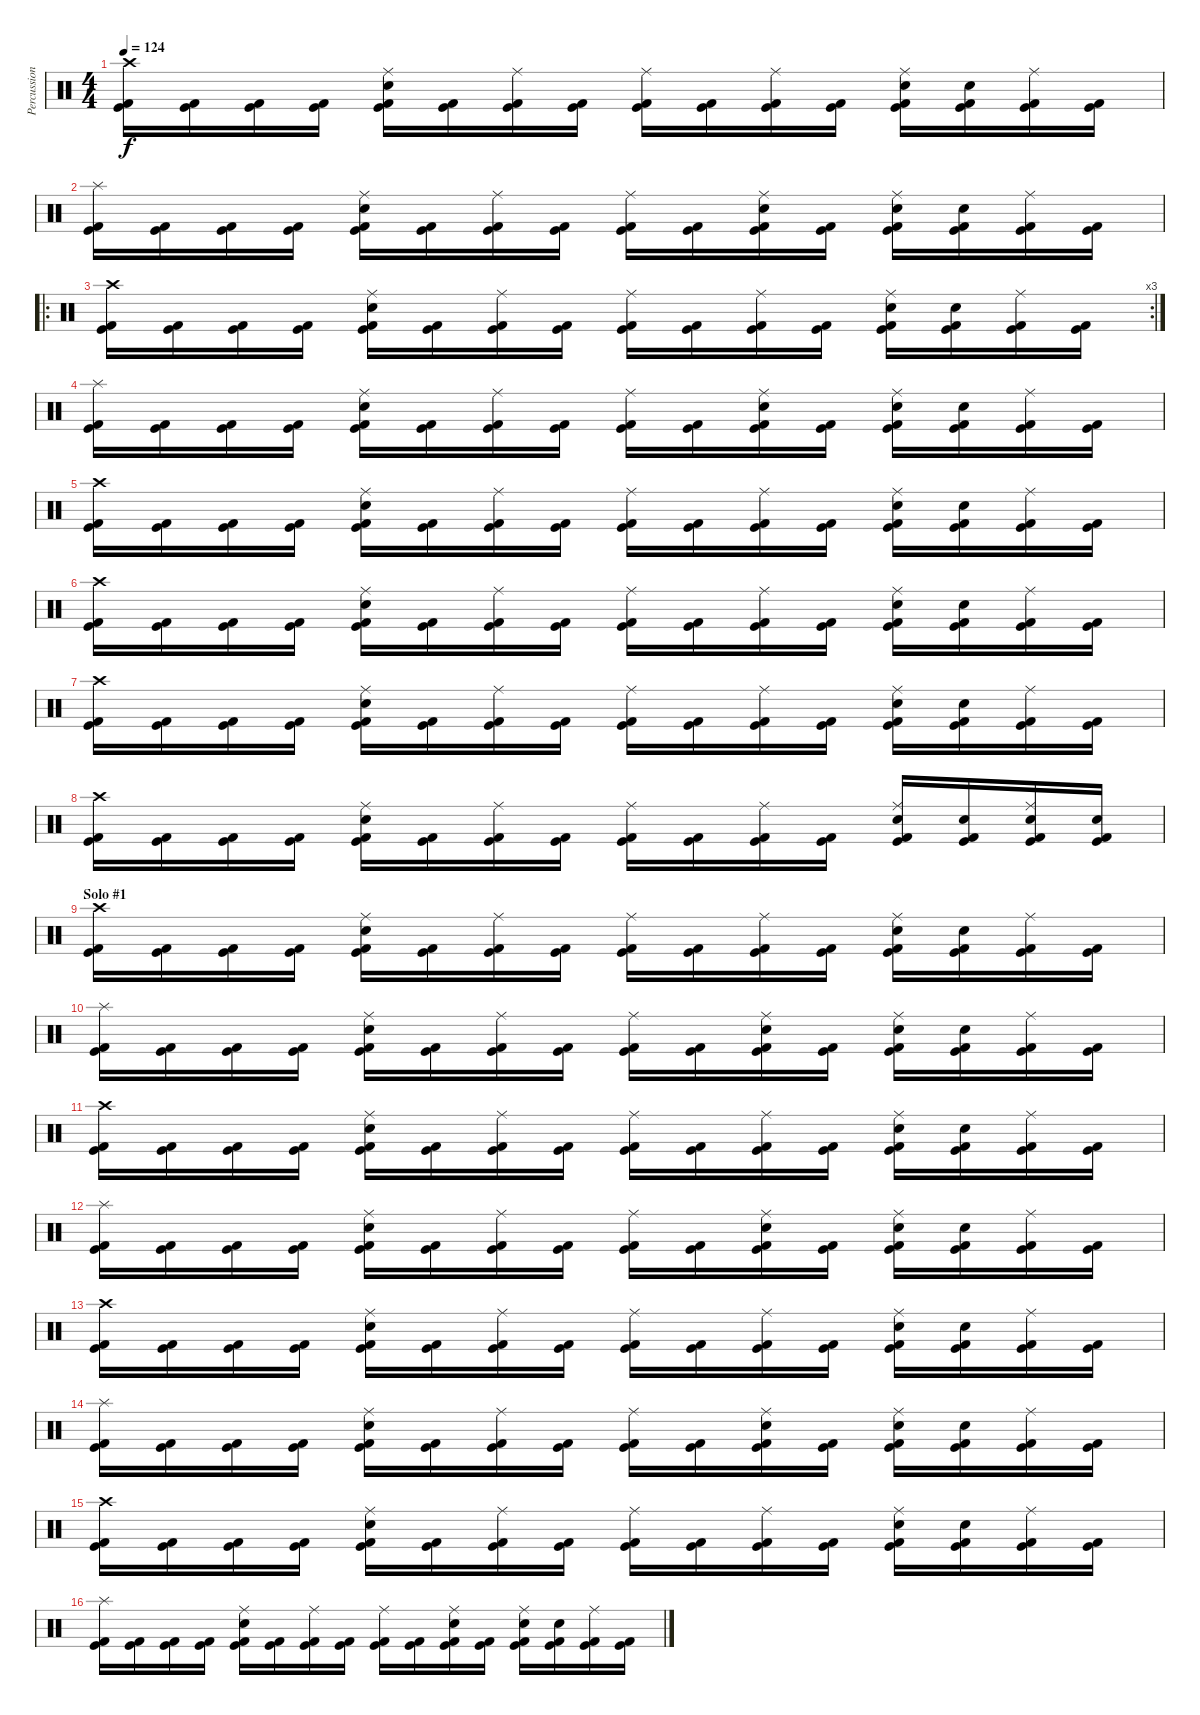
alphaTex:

\track ("Percussion" "Percussion") {instrument percussion}
\staff {score}
\articulation defaults
\ts (4 4)
\tempo 124
\clef neutral
\ks c
("Crash high (hit)" "Kick (hit) 2" "Kick (hit)").16{dy f} ("Kick (hit) 2" "Kick (hit)").16 ("Kick (hit) 2" "Kick (hit)").16 ("Kick (hit) 2" "Kick (hit)").16 ("Ride (middle)" "Snare (hit) 2" "Kick (hit) 2" "Kick (hit)").16 ("Kick (hit) 2" "Kick (hit)").16 ("Ride (middle)" "Kick (hit) 2" "Kick (hit)").16 ("Kick (hit) 2" "Kick (hit)").16 ("Ride (middle)" "Kick (hit) 2" "Kick (hit)").16 ("Kick (hit) 2" "Kick (hit)").16 ("Ride (middle)" "Kick (hit) 2" "Kick (hit)").16 ("Kick (hit) 2" "Kick (hit)").16 ("Ride (middle)" "Snare (hit) 2" "Kick (hit) 2" "Kick (hit)").16 ("Snare (hit) 2" "Kick (hit) 2" "Kick (hit)").16 ("Ride (middle)" "Kick (hit) 2" "Kick (hit)").16 ("Kick (hit) 2" "Kick (hit)").16 |
("Splash (hit)" "Kick (hit) 2" "Kick (hit)").16 ("Kick (hit) 2" "Kick (hit)").16 ("Kick (hit) 2" "Kick (hit)").16 ("Kick (hit) 2" "Kick (hit)").16 ("Ride (middle)" "Snare (hit) 2" "Kick (hit) 2" "Kick (hit)").16 ("Kick (hit) 2" "Kick (hit)").16 ("Ride (middle)" "Kick (hit) 2" "Kick (hit)").16 ("Kick (hit) 2" "Kick (hit)").16 ("Ride (middle)" "Kick (hit) 2" "Kick (hit)").16 ("Kick (hit) 2" "Kick (hit)").16 ("Ride (middle)" "Snare (hit) 2" "Kick (hit) 2" "Kick (hit)").16 ("Kick (hit) 2" "Kick (hit)").16 ("Ride (middle)" "Snare (hit) 2" "Kick (hit) 2" "Kick (hit)").16 ("Snare (hit) 2" "Kick (hit) 2" "Kick (hit)").16 ("Ride (middle)" "Kick (hit) 2" "Kick (hit)").16 ("Kick (hit) 2" "Kick (hit)").16 |
\ro
\rc 3
("Crash high (hit)" "Kick (hit) 2" "Kick (hit)").16 ("Kick (hit) 2" "Kick (hit)").16 ("Kick (hit) 2" "Kick (hit)").16 ("Kick (hit) 2" "Kick (hit)").16 ("Ride (middle)" "Snare (hit) 2" "Kick (hit) 2" "Kick (hit)").16 ("Kick (hit) 2" "Kick (hit)").16 ("Ride (middle)" "Kick (hit) 2" "Kick (hit)").16 ("Kick (hit) 2" "Kick (hit)").16 ("Ride (middle)" "Kick (hit) 2" "Kick (hit)").16 ("Kick (hit) 2" "Kick (hit)").16 ("Ride (middle)" "Kick (hit) 2" "Kick (hit)").16 ("Kick (hit) 2" "Kick (hit)").16 ("Ride (middle)" "Snare (hit) 2" "Kick (hit) 2" "Kick (hit)").16 ("Snare (hit) 2" "Kick (hit) 2" "Kick (hit)").16 ("Ride (middle)" "Kick (hit) 2" "Kick (hit)").16 ("Kick (hit) 2" "Kick (hit)").16 |
("Splash (hit)" "Kick (hit) 2" "Kick (hit)").16 ("Kick (hit) 2" "Kick (hit)").16 ("Kick (hit) 2" "Kick (hit)").16 ("Kick (hit) 2" "Kick (hit)").16 ("Ride (middle)" "Snare (hit) 2" "Kick (hit) 2" "Kick (hit)").16 ("Kick (hit) 2" "Kick (hit)").16 ("Ride (middle)" "Kick (hit) 2" "Kick (hit)").16 ("Kick (hit) 2" "Kick (hit)").16 ("Ride (middle)" "Kick (hit) 2" "Kick (hit)").16 ("Kick (hit) 2" "Kick (hit)").16 ("Ride (middle)" "Snare (hit) 2" "Kick (hit) 2" "Kick (hit)").16 ("Kick (hit) 2" "Kick (hit)").16 ("Ride (middle)" "Snare (hit) 2" "Kick (hit) 2" "Kick (hit)").16 ("Snare (hit) 2" "Kick (hit) 2" "Kick (hit)").16 ("Ride (middle)" "Kick (hit) 2" "Kick (hit)").16 ("Kick (hit) 2" "Kick (hit)").16 |
("Crash high (hit)" "Kick (hit) 2" "Kick (hit)").16 ("Kick (hit) 2" "Kick (hit)").16 ("Kick (hit) 2" "Kick (hit)").16 ("Kick (hit) 2" "Kick (hit)").16 ("Ride (middle)" "Snare (hit) 2" "Kick (hit) 2" "Kick (hit)").16 ("Kick (hit) 2" "Kick (hit)").16 ("Ride (middle)" "Kick (hit) 2" "Kick (hit)").16 ("Kick (hit) 2" "Kick (hit)").16 ("Ride (middle)" "Kick (hit) 2" "Kick (hit)").16 ("Kick (hit) 2" "Kick (hit)").16 ("Ride (middle)" "Kick (hit) 2" "Kick (hit)").16 ("Kick (hit) 2" "Kick (hit)").16 ("Ride (middle)" "Snare (hit) 2" "Kick (hit) 2" "Kick (hit)").16 ("Snare (hit) 2" "Kick (hit) 2" "Kick (hit)").16 ("Ride (middle)" "Kick (hit) 2" "Kick (hit)").16 ("Kick (hit) 2" "Kick (hit)").16 |
("Crash high (hit)" "Kick (hit) 2" "Kick (hit)").16 ("Kick (hit) 2" "Kick (hit)").16 ("Kick (hit) 2" "Kick (hit)").16 ("Kick (hit) 2" "Kick (hit)").16 ("Ride (middle)" "Snare (hit) 2" "Kick (hit) 2" "Kick (hit)").16 ("Kick (hit) 2" "Kick (hit)").16 ("Ride (middle)" "Kick (hit) 2" "Kick (hit)").16 ("Kick (hit) 2" "Kick (hit)").16 ("Ride (middle)" "Kick (hit) 2" "Kick (hit)").16 ("Kick (hit) 2" "Kick (hit)").16 ("Ride (middle)" "Kick (hit) 2" "Kick (hit)").16 ("Kick (hit) 2" "Kick (hit)").16 ("Ride (middle)" "Snare (hit) 2" "Kick (hit) 2" "Kick (hit)").16 ("Snare (hit) 2" "Kick (hit) 2" "Kick (hit)").16 ("Ride (middle)" "Kick (hit) 2" "Kick (hit)").16 ("Kick (hit) 2" "Kick (hit)").16 |
("Crash high (hit)" "Kick (hit) 2" "Kick (hit)").16 ("Kick (hit) 2" "Kick (hit)").16 ("Kick (hit) 2" "Kick (hit)").16 ("Kick (hit) 2" "Kick (hit)").16 ("Ride (middle)" "Snare (hit) 2" "Kick (hit) 2" "Kick (hit)").16 ("Kick (hit) 2" "Kick (hit)").16 ("Ride (middle)" "Kick (hit) 2" "Kick (hit)").16 ("Kick (hit) 2" "Kick (hit)").16 ("Ride (middle)" "Kick (hit) 2" "Kick (hit)").16 ("Kick (hit) 2" "Kick (hit)").16 ("Ride (middle)" "Kick (hit) 2" "Kick (hit)").16 ("Kick (hit) 2" "Kick (hit)").16 ("Ride (middle)" "Snare (hit) 2" "Kick (hit) 2" "Kick (hit)").16 ("Snare (hit) 2" "Kick (hit) 2" "Kick (hit)").16 ("Ride (middle)" "Kick (hit) 2" "Kick (hit)").16 ("Kick (hit) 2" "Kick (hit)").16 |
("Crash high (hit)" "Kick (hit) 2" "Kick (hit)").16 ("Kick (hit) 2" "Kick (hit)").16 ("Kick (hit) 2" "Kick (hit)").16 ("Kick (hit) 2" "Kick (hit)").16 ("Ride (middle)" "Snare (hit) 2" "Kick (hit) 2" "Kick (hit)").16 ("Kick (hit) 2" "Kick (hit)").16 ("Ride (middle)" "Kick (hit) 2" "Kick (hit)").16 ("Kick (hit) 2" "Kick (hit)").16 ("Ride (middle)" "Kick (hit) 2" "Kick (hit)").16 ("Kick (hit) 2" "Kick (hit)").16 ("Ride (middle)" "Kick (hit) 2" "Kick (hit)").16 ("Kick (hit) 2" "Kick (hit)").16 ("Ride (middle)" "Snare (hit) 2" "Kick (hit) 2" "Kick (hit)").16 ("Snare (hit) 2" "Kick (hit) 2" "Kick (hit)").16 ("Ride (middle)" "Snare (hit) 2" "Kick (hit) 2" "Kick (hit)").16 ("Snare (hit) 2" "Kick (hit) 2" "Kick (hit)").16 |
\section ("" "Solo #1")
("Crash high (hit)" "Kick (hit) 2" "Kick (hit)").16 ("Kick (hit) 2" "Kick (hit)").16 ("Kick (hit) 2" "Kick (hit)").16 ("Kick (hit) 2" "Kick (hit)").16 ("Ride (middle)" "Snare (hit) 2" "Kick (hit) 2" "Kick (hit)").16 ("Kick (hit) 2" "Kick (hit)").16 ("Ride (middle)" "Kick (hit) 2" "Kick (hit)").16 ("Kick (hit) 2" "Kick (hit)").16 ("Ride (middle)" "Kick (hit) 2" "Kick (hit)").16 ("Kick (hit) 2" "Kick (hit)").16 ("Ride (middle)" "Kick (hit) 2" "Kick (hit)").16 ("Kick (hit) 2" "Kick (hit)").16 ("Ride (middle)" "Snare (hit) 2" "Kick (hit) 2" "Kick (hit)").16 ("Snare (hit) 2" "Kick (hit) 2" "Kick (hit)").16 ("Ride (middle)" "Kick (hit) 2" "Kick (hit)").16 ("Kick (hit) 2" "Kick (hit)").16 |
("Splash (hit)" "Kick (hit) 2" "Kick (hit)").16 ("Kick (hit) 2" "Kick (hit)").16 ("Kick (hit) 2" "Kick (hit)").16 ("Kick (hit) 2" "Kick (hit)").16 ("Ride (middle)" "Snare (hit) 2" "Kick (hit) 2" "Kick (hit)").16 ("Kick (hit) 2" "Kick (hit)").16 ("Ride (middle)" "Kick (hit) 2" "Kick (hit)").16 ("Kick (hit) 2" "Kick (hit)").16 ("Ride (middle)" "Kick (hit) 2" "Kick (hit)").16 ("Kick (hit) 2" "Kick (hit)").16 ("Ride (middle)" "Snare (hit) 2" "Kick (hit) 2" "Kick (hit)").16 ("Kick (hit) 2" "Kick (hit)").16 ("Ride (middle)" "Snare (hit) 2" "Kick (hit) 2" "Kick (hit)").16 ("Snare (hit) 2" "Kick (hit) 2" "Kick (hit)").16 ("Ride (middle)" "Kick (hit) 2" "Kick (hit)").16 ("Kick (hit) 2" "Kick (hit)").16 |
("Crash high (hit)" "Kick (hit) 2" "Kick (hit)").16 ("Kick (hit) 2" "Kick (hit)").16 ("Kick (hit) 2" "Kick (hit)").16 ("Kick (hit) 2" "Kick (hit)").16 ("Ride (middle)" "Snare (hit) 2" "Kick (hit) 2" "Kick (hit)").16 ("Kick (hit) 2" "Kick (hit)").16 ("Ride (middle)" "Kick (hit) 2" "Kick (hit)").16 ("Kick (hit) 2" "Kick (hit)").16 ("Ride (middle)" "Kick (hit) 2" "Kick (hit)").16 ("Kick (hit) 2" "Kick (hit)").16 ("Ride (middle)" "Kick (hit) 2" "Kick (hit)").16 ("Kick (hit) 2" "Kick (hit)").16 ("Ride (middle)" "Snare (hit) 2" "Kick (hit) 2" "Kick (hit)").16 ("Snare (hit) 2" "Kick (hit) 2" "Kick (hit)").16 ("Ride (middle)" "Kick (hit) 2" "Kick (hit)").16 ("Kick (hit) 2" "Kick (hit)").16 |
("Splash (hit)" "Kick (hit) 2" "Kick (hit)").16 ("Kick (hit) 2" "Kick (hit)").16 ("Kick (hit) 2" "Kick (hit)").16 ("Kick (hit) 2" "Kick (hit)").16 ("Ride (middle)" "Snare (hit) 2" "Kick (hit) 2" "Kick (hit)").16 ("Kick (hit) 2" "Kick (hit)").16 ("Ride (middle)" "Kick (hit) 2" "Kick (hit)").16 ("Kick (hit) 2" "Kick (hit)").16 ("Ride (middle)" "Kick (hit) 2" "Kick (hit)").16 ("Kick (hit) 2" "Kick (hit)").16 ("Ride (middle)" "Snare (hit) 2" "Kick (hit) 2" "Kick (hit)").16 ("Kick (hit) 2" "Kick (hit)").16 ("Ride (middle)" "Snare (hit) 2" "Kick (hit) 2" "Kick (hit)").16 ("Snare (hit) 2" "Kick (hit) 2" "Kick (hit)").16 ("Ride (middle)" "Kick (hit) 2" "Kick (hit)").16 ("Kick (hit) 2" "Kick (hit)").16 |
("Crash high (hit)" "Kick (hit) 2" "Kick (hit)").16 ("Kick (hit) 2" "Kick (hit)").16 ("Kick (hit) 2" "Kick (hit)").16 ("Kick (hit) 2" "Kick (hit)").16 ("Ride (middle)" "Snare (hit) 2" "Kick (hit) 2" "Kick (hit)").16 ("Kick (hit) 2" "Kick (hit)").16 ("Ride (middle)" "Kick (hit) 2" "Kick (hit)").16 ("Kick (hit) 2" "Kick (hit)").16 ("Ride (middle)" "Kick (hit) 2" "Kick (hit)").16 ("Kick (hit) 2" "Kick (hit)").16 ("Ride (middle)" "Kick (hit) 2" "Kick (hit)").16 ("Kick (hit) 2" "Kick (hit)").16 ("Ride (middle)" "Snare (hit) 2" "Kick (hit) 2" "Kick (hit)").16 ("Snare (hit) 2" "Kick (hit) 2" "Kick (hit)").16 ("Ride (middle)" "Kick (hit) 2" "Kick (hit)").16 ("Kick (hit) 2" "Kick (hit)").16 |
("Splash (hit)" "Kick (hit) 2" "Kick (hit)").16 ("Kick (hit) 2" "Kick (hit)").16 ("Kick (hit) 2" "Kick (hit)").16 ("Kick (hit) 2" "Kick (hit)").16 ("Ride (middle)" "Snare (hit) 2" "Kick (hit) 2" "Kick (hit)").16 ("Kick (hit) 2" "Kick (hit)").16 ("Ride (middle)" "Kick (hit) 2" "Kick (hit)").16 ("Kick (hit) 2" "Kick (hit)").16 ("Ride (middle)" "Kick (hit) 2" "Kick (hit)").16 ("Kick (hit) 2" "Kick (hit)").16 ("Ride (middle)" "Snare (hit) 2" "Kick (hit) 2" "Kick (hit)").16 ("Kick (hit) 2" "Kick (hit)").16 ("Ride (middle)" "Snare (hit) 2" "Kick (hit) 2" "Kick (hit)").16 ("Snare (hit) 2" "Kick (hit) 2" "Kick (hit)").16 ("Ride (middle)" "Kick (hit) 2" "Kick (hit)").16 ("Kick (hit) 2" "Kick (hit)").16 |
("Crash high (hit)" "Kick (hit) 2" "Kick (hit)").16 ("Kick (hit) 2" "Kick (hit)").16 ("Kick (hit) 2" "Kick (hit)").16 ("Kick (hit) 2" "Kick (hit)").16 ("Ride (middle)" "Snare (hit) 2" "Kick (hit) 2" "Kick (hit)").16 ("Kick (hit) 2" "Kick (hit)").16 ("Ride (middle)" "Kick (hit) 2" "Kick (hit)").16 ("Kick (hit) 2" "Kick (hit)").16 ("Ride (middle)" "Kick (hit) 2" "Kick (hit)").16 ("Kick (hit) 2" "Kick (hit)").16 ("Ride (middle)" "Kick (hit) 2" "Kick (hit)").16 ("Kick (hit) 2" "Kick (hit)").16 ("Ride (middle)" "Snare (hit) 2" "Kick (hit) 2" "Kick (hit)").16 ("Snare (hit) 2" "Kick (hit) 2" "Kick (hit)").16 ("Ride (middle)" "Kick (hit) 2" "Kick (hit)").16 ("Kick (hit) 2" "Kick (hit)").16 |
("Splash (hit)" "Kick (hit) 2" "Kick (hit)").16 ("Kick (hit) 2" "Kick (hit)").16 ("Kick (hit) 2" "Kick (hit)").16 ("Kick (hit) 2" "Kick (hit)").16 ("Ride (middle)" "Snare (hit) 2" "Kick (hit) 2" "Kick (hit)").16 ("Kick (hit) 2" "Kick (hit)").16 ("Ride (middle)" "Kick (hit) 2" "Kick (hit)").16 ("Kick (hit) 2" "Kick (hit)").16 ("Ride (middle)" "Kick (hit) 2" "Kick (hit)").16 ("Kick (hit) 2" "Kick (hit)").16 ("Ride (middle)" "Snare (hit) 2" "Kick (hit) 2" "Kick (hit)").16 ("Kick (hit) 2" "Kick (hit)").16 ("Ride (middle)" "Snare (hit) 2" "Kick (hit) 2" "Kick (hit)").16 ("Snare (hit) 2" "Kick (hit) 2" "Kick (hit)").16 ("Ride (middle)" "Kick (hit) 2" "Kick (hit)").16 ("Kick (hit) 2" "Kick (hit)").16
